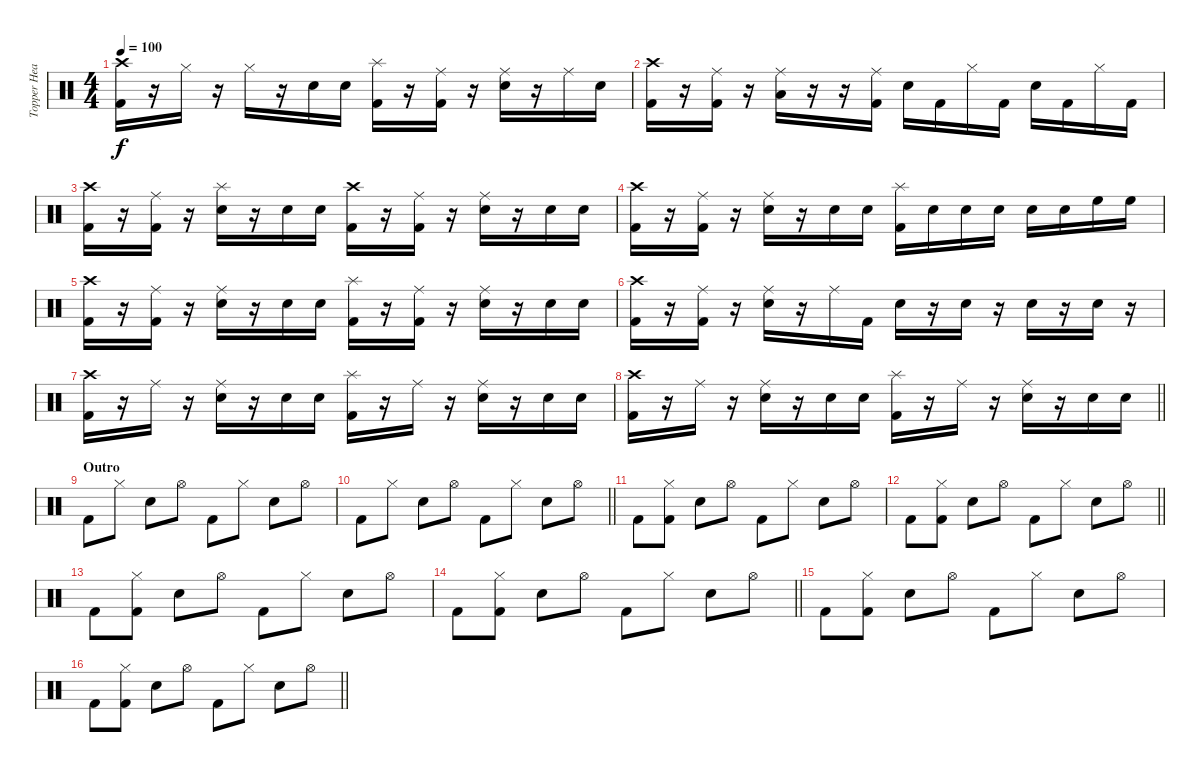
\track ("Topper Headon" "Topper Hea") {instrument percussion}
\staff {score}
\articulation defaults
\ts (4 4)
\tempo 100
\clef neutral
\ks c
("Crash high (hit)" "Kick (hit) 2").16{dy f} r.16 "Hi-Hat (closed)".16 r.16 "Hi-Hat (closed)".16 r.16 "Snare (hit) 2".16 "Snare (hit) 2".16 ("Splash (hit)" "Kick (hit) 2").16 r.16 ("Ride (middle)" "Kick (hit) 2").16 r.16 ("Ride (middle)" "Snare (hit) 2").16 r.16 "Ride (middle)".16 "Snare (hit) 2".16 |
("Crash high (hit)" "Kick (hit) 2").16 r.16 ("Ride (middle)" "Kick (hit) 2").16 r.16 ("Ride (middle)" "Low Floor Tom (hit)").16 r.16 r.16 ("Ride (middle)" "Kick (hit) 2").16 "Electric Snare (hit)".16 "Kick (hit) 2".16 "Hi-Hat (closed)".16 "Kick (hit) 2".16 "Electric Snare (hit)".16 "Kick (hit) 2".16 "Hi-Hat (closed)".16 "Kick (hit) 2".16 |
("Crash high (hit)" "Kick (hit) 2").16 r.16 ("Ride (middle)" "Kick (hit) 2").16 r.16 ("Splash (hit)" "Snare (hit) 2").16 r.16 "Snare (hit) 2".16 "Snare (hit) 2".16 ("Crash high (hit)" "Kick (hit) 2").16 r.16 ("Ride (middle)" "Kick (hit) 2").16 r.16 ("Ride (middle)" "Snare (hit) 2").16 r.16 "Snare (hit) 2".16 "Snare (hit) 2".16 |
("Crash high (hit)" "Kick (hit) 2").16 r.16 ("Ride (middle)" "Kick (hit) 2").16 r.16 ("Ride (middle)" "Snare (hit) 2").16 r.16 "Snare (hit) 2".16 "Snare (hit) 2".16 ("Splash (hit)" "Kick (hit) 2").16 "Snare (hit) 2".16 "Snare (hit) 2".16 "Snare (hit) 2".16 "Snare (hit) 2".16 "Snare (hit) 2".16 "High Floor Tom (hit)".16 "High Floor Tom (hit)".16 |
("Crash high (hit)" "Kick (hit) 2").16 r.16 ("Ride (middle)" "Kick (hit) 2").16 r.16 ("Ride (middle)" "Snare (hit) 2").16 r.16 "Snare (hit) 2".16 "Snare (hit) 2".16 ("Splash (hit)" "Kick (hit) 2").16 r.16 ("Ride (middle)" "Kick (hit) 2").16 r.16 ("Ride (middle)" "Snare (hit) 2").16 r.16 "Snare (hit) 2".16 "Snare (hit) 2".16 |
("Crash high (hit)" "Kick (hit) 2").16 r.16 ("Ride (middle)" "Kick (hit) 2").16 r.16 ("Ride (middle)" "Snare (hit) 2").16 r.16 "Ride (middle)".16 "Kick (hit) 2".16 "Snare (hit) 2".16 r.16 "Snare (hit) 2".16 r.16 "Snare (hit) 2".16 r.16 "Snare (hit) 2".16 r.16 |
("Crash high (hit)" "Kick (hit) 2").16 r.16 "Ride (middle)".16 r.16 ("Ride (middle)" "Snare (hit) 2").16 r.16 "Snare (hit) 2".16 "Snare (hit) 2".16 ("Splash (hit)" "Kick (hit) 2").16 r.16 "Ride (middle)".16 r.16 ("Ride (middle)" "Snare (hit) 2").16 r.16 "Snare (hit) 2".16 "Snare (hit) 2".16 |
\barLineRight lightlight
("Crash high (hit)" "Kick (hit) 2").16 r.16 "Ride (middle)".16 r.16 ("Ride (middle)" "Snare (hit) 2").16 r.16 "Snare (hit) 2".16 "Snare (hit) 2".16 ("Splash (hit)" "Kick (hit) 2").16 r.16 "Ride (middle)".16 r.16 ("Ride (middle)" "Snare (hit) 2").16 r.16 "Snare (hit) 2".16 "Snare (hit) 2".16 |
\section ("" "Outro")
"Kick (hit) 2".8 "Hi-Hat (closed)".8 "Snare (hit) 2".8 "Hi-Hat (open)".8 "Kick (hit) 2".8 "Hi-Hat (closed)".8 "Snare (hit) 2".8 "Hi-Hat (open)".8 |
\barLineRight lightlight "Kick (hit) 2".8 "Hi-Hat (closed)".8 "Snare (hit) 2".8 "Hi-Hat (open)".8 "Kick (hit) 2".8 "Hi-Hat (closed)".8 "Snare (hit) 2".8 "Hi-Hat (open)".8
|
"Kick (hit) 2".8 ("Hi-Hat (closed)" "Kick (hit) 2").8 "Snare (hit) 2".8 "Hi-Hat (open)".8 "Kick (hit) 2".8 "Hi-Hat (closed)".8 "Snare (hit) 2".8 "Hi-Hat (open)".8 |
\barLineRight lightlight "Kick (hit) 2".8
("Hi-Hat (closed)" "Kick (hit) 2").8 "Snare (hit) 2".8 "Hi-Hat (open)".8 "Kick (hit) 2".8 "Hi-Hat (closed)".8 "Snare (hit) 2".8 "Hi-Hat (open)".8 |
"Kick (hit) 2".8 ("Hi-Hat (closed)" "Kick (hit) 2").8 "Snare (hit) 2".8 "Hi-Hat (open)".8 "Kick (hit) 2".8 "Hi-Hat (closed)".8 "Snare (hit) 2".8 "Hi-Hat (open)".8 |
\barLineRight lightlight "Kick (hit) 2".8
("Hi-Hat (closed)" "Kick (hit) 2").8 "Snare (hit) 2".8 "Hi-Hat (open)".8 "Kick (hit) 2".8 "Hi-Hat (closed)".8 "Snare (hit) 2".8 "Hi-Hat (open)".8 |
"Kick (hit) 2".8 ("Hi-Hat (closed)" "Kick (hit) 2").8 "Snare (hit) 2".8 "Hi-Hat (open)".8 "Kick (hit) 2".8 "Hi-Hat (closed)".8 "Snare (hit) 2".8 "Hi-Hat (open)".8 |
\barLineRight lightlight "Kick (hit) 2".8
("Hi-Hat (closed)" "Kick (hit) 2").8 "Snare (hit) 2".8 "Hi-Hat (open)".8 "Kick (hit) 2".8 "Hi-Hat (closed)".8 "Snare (hit) 2".8 "Hi-Hat (open)".8
